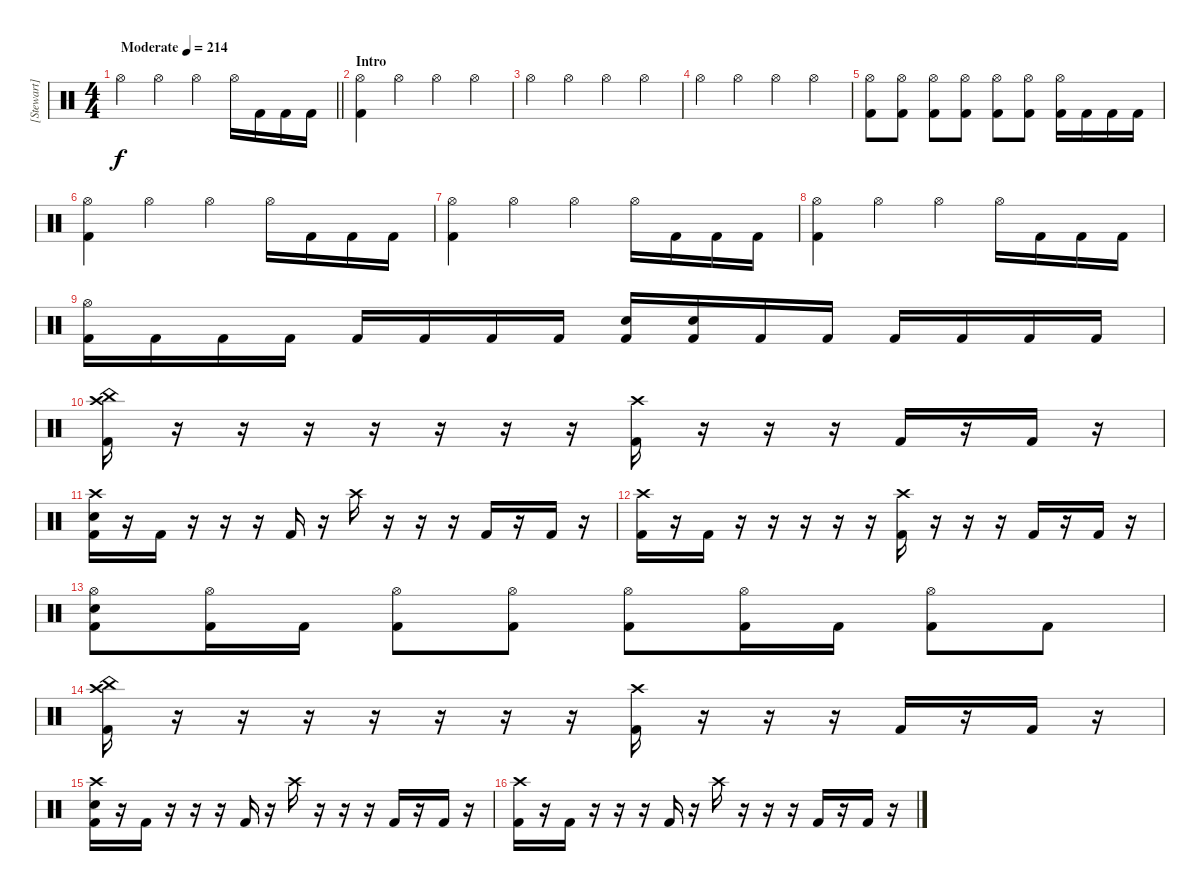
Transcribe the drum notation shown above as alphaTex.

\track ("[Stewart]" "[Stewart]") {instrument percussion}
\staff {score}
\articulation defaults
\ts (4 4)
\tempo (214 "Moderate")
\clef neutral
\barLineRight lightlight
\ks c "Hi-Hat (open)".4{dy f} "Hi-Hat (open)".4 "Hi-Hat (open)".4 "Hi-Hat (open)".16 "Kick (hit) 2".16 "Kick (hit) 2".16 "Kick (hit) 2".16
|
\section ("" "Intro")
("Hi-Hat (open)" "Kick (hit) 2").4 "Hi-Hat (open)".4 "Hi-Hat (open)".4 "Hi-Hat (open)".4 |
"Hi-Hat (open)".4 "Hi-Hat (open)".4 "Hi-Hat (open)".4 "Hi-Hat (open)".4 |
"Hi-Hat (open)".4 "Hi-Hat (open)".4 "Hi-Hat (open)".4 "Hi-Hat (open)".4 |
("Hi-Hat (open)" "Kick (hit) 2").8 ("Hi-Hat (open)" "Kick (hit) 2").8 ("Hi-Hat (open)" "Kick (hit) 2").8 ("Hi-Hat (open)" "Kick (hit) 2").8 ("Hi-Hat (open)" "Kick (hit) 2").8 ("Hi-Hat (open)" "Kick (hit) 2").8 ("Hi-Hat (open)" "Kick (hit) 2").16 "Kick (hit) 2".16 "Kick (hit) 2".16 "Kick (hit) 2".16 |
("Hi-Hat (open)" "Kick (hit) 2").4 "Hi-Hat (open)".4 "Hi-Hat (open)".4 "Hi-Hat (open)".16 "Kick (hit) 2".16 "Kick (hit) 2".16 "Kick (hit) 2".16 |
("Hi-Hat (open)" "Kick (hit) 2").4 "Hi-Hat (open)".4 "Hi-Hat (open)".4 "Hi-Hat (open)".16 "Kick (hit) 2".16 "Kick (hit) 2".16 "Kick (hit) 2".16 |
("Hi-Hat (open)" "Kick (hit) 2").4 "Hi-Hat (open)".4 "Hi-Hat (open)".4 "Hi-Hat (open)".16 "Kick (hit) 2".16 "Kick (hit) 2".16 "Kick (hit) 2".16 |
("Hi-Hat (open)" "Kick (hit) 2").16 "Kick (hit) 2".16 "Kick (hit) 2".16 "Kick (hit) 2".16 "Kick (hit) 2".16 "Kick (hit) 2".16 "Kick (hit) 2".16 "Kick (hit) 2".16 ("Electric Snare (hit)" "Kick (hit) 2").16 ("Electric Snare (hit)" "Kick (hit) 2").16 "Kick (hit) 2".16 "Kick (hit) 2".16 "Kick (hit) 2".16 "Kick (hit) 2".16 "Kick (hit) 2".16 "Kick (hit) 2".16 |
("China (hit)" "Crash high (hit)" "Kick (hit) 2").16 r.16 r.16 r.16 r.16 r.16 r.16 r.16 ("Crash high (hit)" "Kick (hit) 2").16 r.16 r.16 r.16 "Kick (hit) 2".16 r.16 "Kick (hit) 2".16 r.16 |
("Crash high (hit)" "Electric Snare (hit)" "Kick (hit) 2").16 r.16 "Kick (hit) 2".16 r.16 r.16 r.16 "Kick (hit) 2".16 r.16 "Crash high (hit)".16 r.16 r.16 r.16 "Kick (hit) 2".16 r.16 "Kick (hit) 2".16 r.16 |
("Crash high (hit)" "Kick (hit) 2").16 r.16 "Kick (hit) 2".16 r.16 r.16 r.16 r.16 r.16 ("Crash high (hit)" "Kick (hit) 2").16 r.16 r.16 r.16 "Kick (hit) 2".16 r.16 "Kick (hit) 2".16 r.16 |
("Hi-Hat (open)" "Electric Snare (hit)" "Kick (hit) 2").8 ("Hi-Hat (open)" "Kick (hit) 2").16 "Kick (hit) 2".16 ("Hi-Hat (open)" "Kick (hit) 2").8 ("Hi-Hat (open)" "Kick (hit) 2").8 ("Hi-Hat (open)" "Kick (hit) 2").8 ("Hi-Hat (open)" "Kick (hit) 2").16 "Kick (hit) 2".16 ("Hi-Hat (open)" "Kick (hit) 2").8 "Kick (hit) 2".8 |
("China (hit)" "Crash high (hit)" "Kick (hit) 2").16 r.16 r.16 r.16 r.16 r.16 r.16 r.16 ("Crash high (hit)" "Kick (hit) 2").16 r.16 r.16 r.16 "Kick (hit) 2".16 r.16 "Kick (hit) 2".16 r.16 |
("Crash high (hit)" "Electric Snare (hit)" "Kick (hit) 2").16 r.16 "Kick (hit) 2".16 r.16 r.16 r.16 "Kick (hit) 2".16 r.16 "Crash high (hit)".16 r.16 r.16 r.16 "Kick (hit) 2".16 r.16 "Kick (hit) 2".16 r.16 |
("Crash high (hit)" "Kick (hit) 2").16 r.16 "Kick (hit) 2".16 r.16 r.16 r.16 "Kick (hit) 2".16 r.16 "Crash high (hit)".16 r.16 r.16 r.16 "Kick (hit) 2".16 r.16 "Kick (hit) 2".16 r.16
